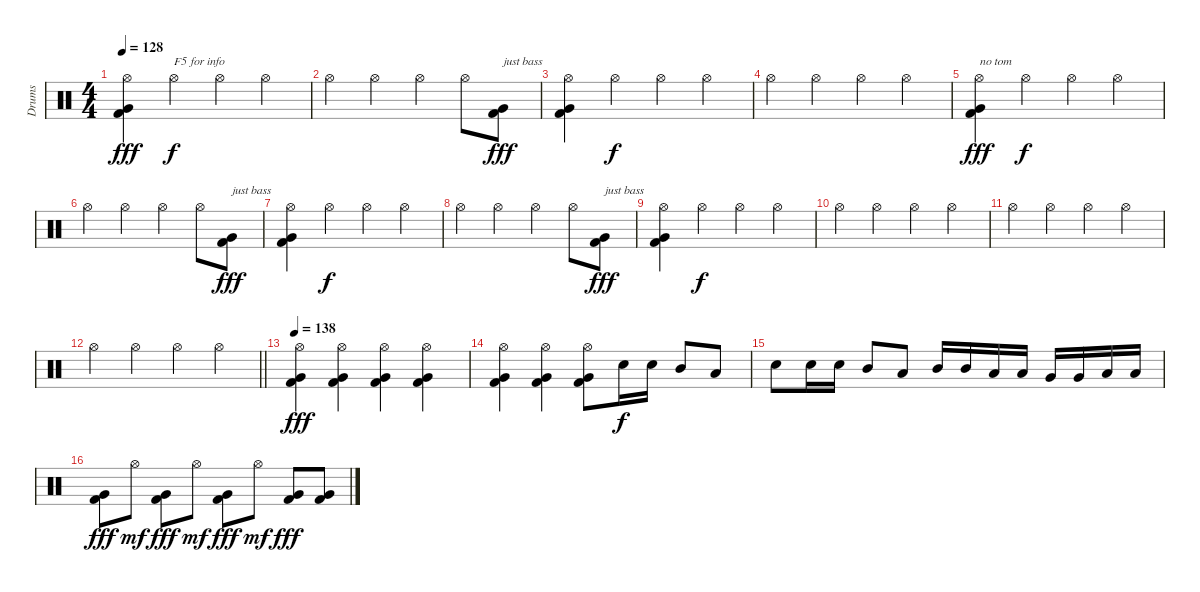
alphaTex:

\track ("Drums" "Drums") {instrument percussion}
\staff {score}
\articulation defaults
\ts (4 4)
\tempo 128
\clef neutral
\ks c
("Hi-Hat (open)" "Very Low Tom (hit)" "Kick (hit) 2").4{dy fff} "Hi-Hat (open)".4{txt "F5 for info" dy f} "Hi-Hat (open)".4 "Hi-Hat (open)".4 |
"Hi-Hat (open)".4 "Hi-Hat (open)".4 "Hi-Hat (open)".4 "Hi-Hat (open)".8 ("Very Low Tom (hit)" "Kick (hit) 2").8{txt "just bass" dy fff} |
("Hi-Hat (open)" "Very Low Tom (hit)" "Kick (hit) 2").4 "Hi-Hat (open)".4{dy f} "Hi-Hat (open)".4 "Hi-Hat (open)".4 |
"Hi-Hat (open)".4 "Hi-Hat (open)".4 "Hi-Hat (open)".4 "Hi-Hat (open)".4 |
("Hi-Hat (open)" "Very Low Tom (hit)" "Kick (hit) 2").4{txt "no tom" dy fff} "Hi-Hat (open)".4{dy f} "Hi-Hat (open)".4 "Hi-Hat (open)".4 |
"Hi-Hat (open)".4 "Hi-Hat (open)".4 "Hi-Hat (open)".4 "Hi-Hat (open)".8 ("Very Low Tom (hit)" "Kick (hit) 2").8{txt "just bass" dy fff} |
("Hi-Hat (open)" "Very Low Tom (hit)" "Kick (hit) 2").4 "Hi-Hat (open)".4{dy f} "Hi-Hat (open)".4 "Hi-Hat (open)".4 |
"Hi-Hat (open)".4 "Hi-Hat (open)".4 "Hi-Hat (open)".4 "Hi-Hat (open)".8 ("Very Low Tom (hit)" "Kick (hit) 2").8{txt "just bass" dy fff} |
("Hi-Hat (open)" "Very Low Tom (hit)" "Kick (hit) 2").4 "Hi-Hat (open)".4{dy f} "Hi-Hat (open)".4 "Hi-Hat (open)".4 |
"Hi-Hat (open)".4 "Hi-Hat (open)".4 "Hi-Hat (open)".4 "Hi-Hat (open)".4 |
"Hi-Hat (open)".4 "Hi-Hat (open)".4 "Hi-Hat (open)".4 "Hi-Hat (open)".4 |
\barLineRight lightlight "Hi-Hat (open)".4 "Hi-Hat (open)".4 "Hi-Hat (open)".4 "Hi-Hat (open)".4
|
\tempo 138
("Hi-Hat (open)" "Very Low Tom (hit)" "Kick (hit) 2").4{dy fff} ("Hi-Hat (open)" "Very Low Tom (hit)" "Kick (hit) 2").4 ("Hi-Hat (open)" "Very Low Tom (hit)" "Kick (hit) 2").4 ("Hi-Hat (open)" "Very Low Tom (hit)" "Kick (hit) 2").4 |
("Hi-Hat (open)" "Very Low Tom (hit)" "Kick (hit) 2").4 ("Hi-Hat (open)" "Very Low Tom (hit)" "Kick (hit) 2").4 ("Hi-Hat (open)" "Very Low Tom (hit)" "Kick (hit) 2").8 "Electric Snare (hit)".16{dy f} "Electric Snare (hit)".16 "Mid Tom (hit)".8 "Low Tom (hit)".8 |
"Electric Snare (hit)".8 "Electric Snare (hit)".16 "Electric Snare (hit)".16 "Mid Tom (hit)".8 "Low Tom (hit)".8 "Mid Tom (hit)".16 "Mid Tom (hit)".16 "Low Tom (hit)".16 "Low Tom (hit)".16 "Very Low Tom (hit)".16 "Very Low Tom (hit)".16 "Low Floor Tom (hit)".16 "Low Floor Tom (hit)".16 |
("Very Low Tom (hit)" "Kick (hit) 2").8{dy fff} "Hi-Hat (open)".8{dy mf} ("Very Low Tom (hit)" "Kick (hit) 2").8{dy fff} "Hi-Hat (open)".8{dy mf} ("Very Low Tom (hit)" "Kick (hit) 2").8{dy fff} "Hi-Hat (open)".8{dy mf} ("Very Low Tom (hit)" "Kick (hit) 2").8{dy fff} ("Very Low Tom (hit)" "Kick (hit) 2").8
